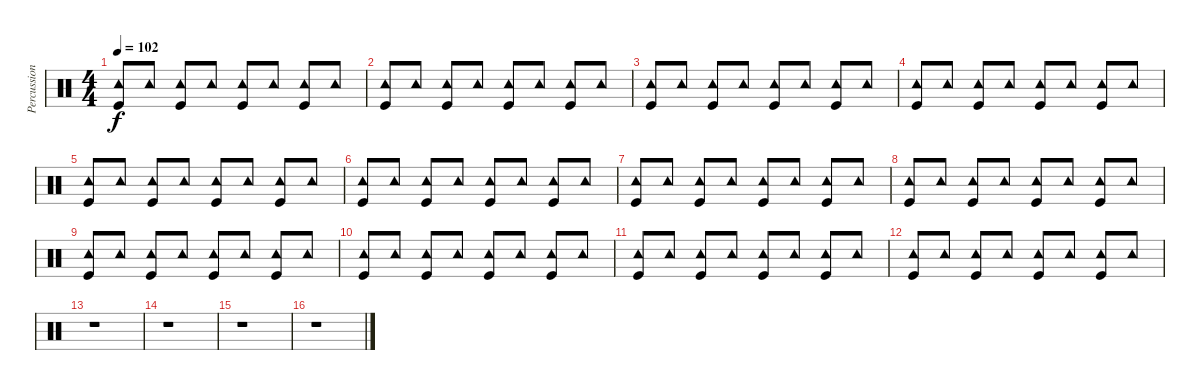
\track ("Percussion" "Percussion") {instrument percussion}
\staff {score}
\articulation defaults
\ts (4 4)
\tempo 102
\clef neutral
\ks c
("Tambourine (hit)" "Kick (hit)").8{dy f} "Tambourine (hit)".8 ("Tambourine (hit)" "Kick (hit)").8 "Tambourine (hit)".8 ("Tambourine (hit)" "Kick (hit)").8 "Tambourine (hit)".8 ("Tambourine (hit)" "Kick (hit)").8 "Tambourine (hit)".8 |
("Tambourine (hit)" "Kick (hit)").8 "Tambourine (hit)".8 ("Tambourine (hit)" "Kick (hit)").8 "Tambourine (hit)".8 ("Tambourine (hit)" "Kick (hit)").8 "Tambourine (hit)".8 ("Tambourine (hit)" "Kick (hit)").8 "Tambourine (hit)".8 |
("Tambourine (hit)" "Kick (hit)").8 "Tambourine (hit)".8 ("Tambourine (hit)" "Kick (hit)").8 "Tambourine (hit)".8 ("Tambourine (hit)" "Kick (hit)").8 "Tambourine (hit)".8 ("Tambourine (hit)" "Kick (hit)").8 "Tambourine (hit)".8 |
("Tambourine (hit)" "Kick (hit)").8 "Tambourine (hit)".8 ("Tambourine (hit)" "Kick (hit)").8 "Tambourine (hit)".8 ("Tambourine (hit)" "Kick (hit)").8 "Tambourine (hit)".8 ("Tambourine (hit)" "Kick (hit)").8 "Tambourine (hit)".8 |
("Tambourine (hit)" "Kick (hit)").8 "Tambourine (hit)".8 ("Tambourine (hit)" "Kick (hit)").8 "Tambourine (hit)".8 ("Tambourine (hit)" "Kick (hit)").8 "Tambourine (hit)".8 ("Tambourine (hit)" "Kick (hit)").8 "Tambourine (hit)".8 |
("Tambourine (hit)" "Kick (hit)").8 "Tambourine (hit)".8 ("Tambourine (hit)" "Kick (hit)").8 "Tambourine (hit)".8 ("Tambourine (hit)" "Kick (hit)").8 "Tambourine (hit)".8 ("Tambourine (hit)" "Kick (hit)").8 "Tambourine (hit)".8 |
("Tambourine (hit)" "Kick (hit)").8 "Tambourine (hit)".8 ("Tambourine (hit)" "Kick (hit)").8 "Tambourine (hit)".8 ("Tambourine (hit)" "Kick (hit)").8 "Tambourine (hit)".8 ("Tambourine (hit)" "Kick (hit)").8 "Tambourine (hit)".8 |
("Tambourine (hit)" "Kick (hit)").8 "Tambourine (hit)".8 ("Tambourine (hit)" "Kick (hit)").8 "Tambourine (hit)".8 ("Tambourine (hit)" "Kick (hit)").8 "Tambourine (hit)".8 ("Tambourine (hit)" "Kick (hit)").8 "Tambourine (hit)".8 |
("Tambourine (hit)" "Kick (hit)").8 "Tambourine (hit)".8 ("Tambourine (hit)" "Kick (hit)").8 "Tambourine (hit)".8 ("Tambourine (hit)" "Kick (hit)").8 "Tambourine (hit)".8 ("Tambourine (hit)" "Kick (hit)").8 "Tambourine (hit)".8 |
("Tambourine (hit)" "Kick (hit)").8 "Tambourine (hit)".8 ("Tambourine (hit)" "Kick (hit)").8 "Tambourine (hit)".8 ("Tambourine (hit)" "Kick (hit)").8 "Tambourine (hit)".8 ("Tambourine (hit)" "Kick (hit)").8 "Tambourine (hit)".8 |
("Tambourine (hit)" "Kick (hit)").8 "Tambourine (hit)".8 ("Tambourine (hit)" "Kick (hit)").8 "Tambourine (hit)".8 ("Tambourine (hit)" "Kick (hit)").8 "Tambourine (hit)".8 ("Tambourine (hit)" "Kick (hit)").8 "Tambourine (hit)".8 |
("Tambourine (hit)" "Kick (hit)").8{volume 0} "Tambourine (hit)".8 ("Tambourine (hit)" "Kick (hit)").8 "Tambourine (hit)".8 ("Tambourine (hit)" "Kick (hit)").8 "Tambourine (hit)".8 ("Tambourine (hit)" "Kick (hit)").8 "Tambourine (hit)".8 |
r.1{volume 13} |
r.1 |
r.1 |
r.1
